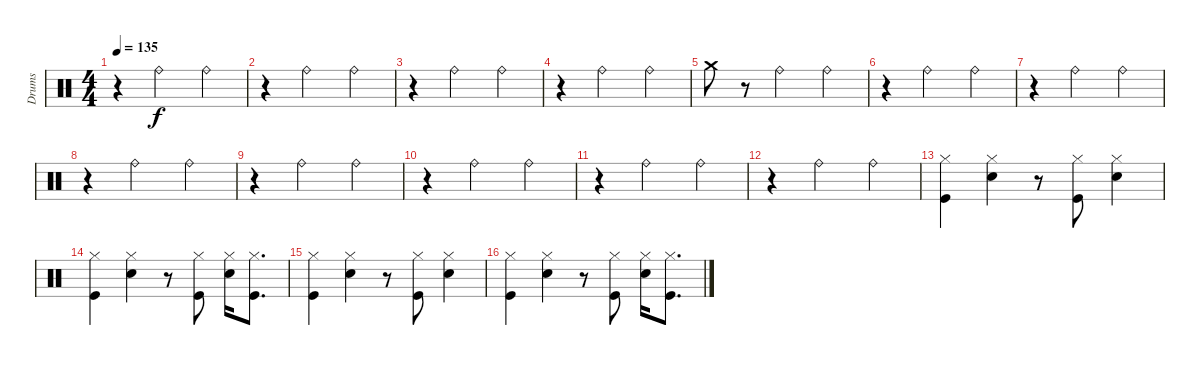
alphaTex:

\track ("Drums" "Drums") {instrument percussion}
\staff {score}
\articulation defaults
\ts (4 4)
\tempo 135
\clef neutral
\ks c
r.4{dy f} "Ride (bell)".2 "Ride (bell)".4 |
r.4 "Ride (bell)".2 "Ride (bell)".4 |
r.4 "Ride (bell)".2 "Ride (bell)".4 |
r.4 "Ride (bell)".2 "Ride (bell)".4 |
"Crash medium (hit)".8 r.8 "Ride (bell)".2 "Ride (bell)".4 |
r.4 "Ride (bell)".2 "Ride (bell)".4 |
r.4 "Ride (bell)".2 "Ride (bell)".4 |
r.4 "Ride (bell)".2 "Ride (bell)".4 |
r.4 "Ride (bell)".2 "Ride (bell)".4 |
r.4 "Ride (bell)".2 "Ride (bell)".4 |
r.4 "Ride (bell)".2 "Ride (bell)".4 |
r.4 "Ride (bell)".2 "Ride (bell)".4 |
("Hi-Hat (closed)" "Kick (hit)").4 ("Hi-Hat (closed)" "Snare (hit) 2").4 r.8 ("Hi-Hat (closed)" "Kick (hit)").8 ("Hi-Hat (closed)" "Snare (hit) 2").4 |
("Hi-Hat (closed)" "Kick (hit)").4 ("Hi-Hat (closed)" "Snare (hit) 2").4 r.8 ("Hi-Hat (closed)" "Kick (hit)").8 ("Hi-Hat (closed)" "Snare (hit) 2").16 ("Hi-Hat (closed)" "Kick (hit)").8{d} |
("Hi-Hat (closed)" "Kick (hit)").4 ("Hi-Hat (closed)" "Snare (hit) 2").4 r.8 ("Hi-Hat (closed)" "Kick (hit)").8 ("Hi-Hat (closed)" "Snare (hit) 2").4 |
("Hi-Hat (closed)" "Kick (hit)").4 ("Hi-Hat (closed)" "Snare (hit) 2").4 r.8 ("Hi-Hat (closed)" "Kick (hit)").8 ("Hi-Hat (closed)" "Snare (hit) 2").16 ("Hi-Hat (closed)" "Kick (hit)").8{d}
